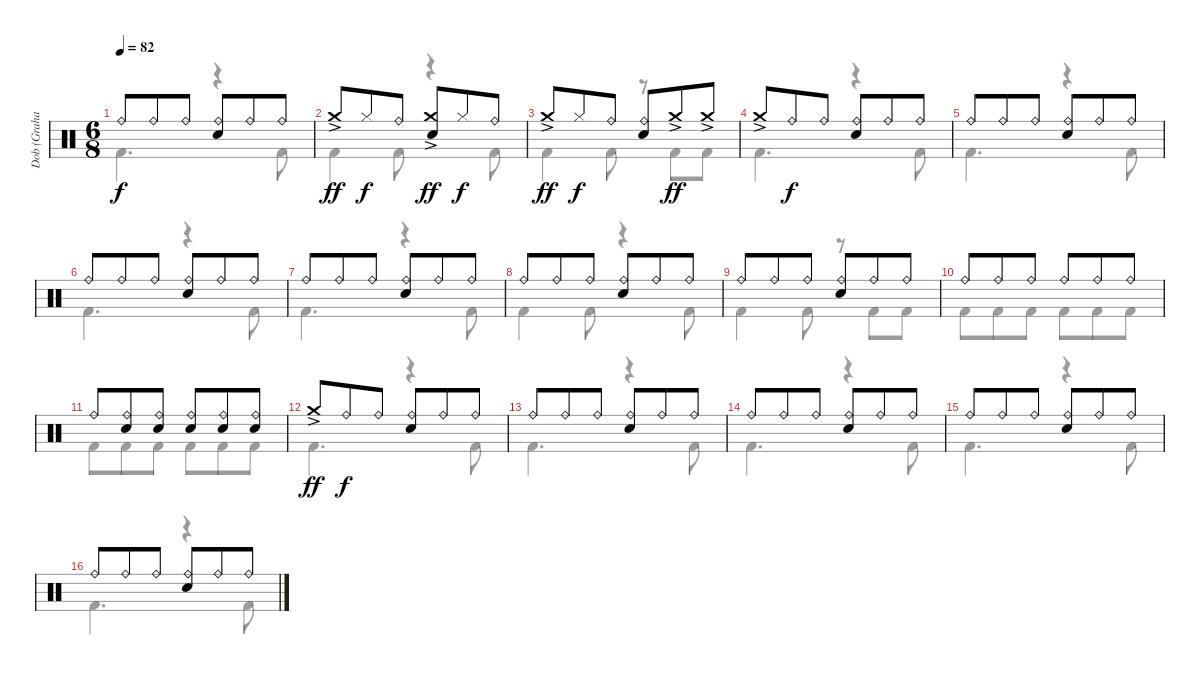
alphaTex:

\track ("Dob (Graham Walker)" "Dob (Graha") {instrument percussion}
\staff {score}
\articulation defaults
\voice
\ts (6 8)
\tempo 82
\clef neutral
\ks c "Ride (bell)".8{dy f} "Ride (bell)".8 "Ride (bell)".8
("Ride (bell)" "Electric Snare (hit)").8 "Ride (bell)".8 "Ride (bell)".8 |
"Crash medium (hit)"{ac}.8{dy ff} "Hi-Hat (closed)".8{dy f} "Ride (bell)".8 ("Crash medium (hit)"{ac} "Electric Snare (hit)").8{dy ff} "Hi-Hat (closed)".8{dy f} "Ride (bell)".8 |
"Crash medium (hit)"{ac}.8{dy ff} "Hi-Hat (closed)".8{dy f} "Ride (bell)".8 ("Ride (bell)" "Electric Snare (hit)").8 "Crash medium (hit)"{ac}.8{dy ff} "Crash medium (hit)"{ac}.8 |
"Crash medium (hit)"{ac}.8 "Ride (bell)".8{dy f} "Ride (bell)".8 ("Ride (bell)" "Electric Snare (hit)").8 "Ride (bell)".8 "Ride (bell)".8 |
"Ride (bell)".8 "Ride (bell)".8 "Ride (bell)".8 ("Ride (bell)" "Electric Snare (hit)").8 "Ride (bell)".8 "Ride (bell)".8 |
"Ride (bell)".8 "Ride (bell)".8 "Ride (bell)".8 ("Ride (bell)" "Electric Snare (hit)").8 "Ride (bell)".8 "Ride (bell)".8 |
"Ride (bell)".8 "Ride (bell)".8 "Ride (bell)".8 ("Ride (bell)" "Electric Snare (hit)").8 "Ride (bell)".8 "Ride (bell)".8 |
"Ride (bell)".8 "Ride (bell)".8 "Ride (bell)".8 ("Ride (bell)" "Electric Snare (hit)").8 "Ride (bell)".8 "Ride (bell)".8 |
"Ride (bell)".8 "Ride (bell)".8 "Ride (bell)".8 ("Ride (bell)" "Electric Snare (hit)").8 "Ride (bell)".8 "Ride (bell)".8 |
"Ride (bell)".8 "Ride (bell)".8 "Ride (bell)".8 "Ride (bell)".8 "Ride (bell)".8 "Ride (bell)".8 |
"Ride (bell)".8 ("Ride (bell)" "Electric Snare (hit)").8 ("Ride (bell)" "Electric Snare (hit)").8 ("Ride (bell)" "Electric Snare (hit)").8 ("Ride (bell)" "Electric Snare (hit)").8 ("Ride (bell)" "Electric Snare (hit)").8 |
"Crash medium (hit)"{ac}.8{dy ff} "Ride (bell)".8{dy f} "Ride (bell)".8 ("Ride (bell)" "Electric Snare (hit)").8 "Ride (bell)".8 "Ride (bell)".8 |
"Ride (bell)".8 "Ride (bell)".8 "Ride (bell)".8 ("Ride (bell)" "Electric Snare (hit)").8 "Ride (bell)".8 "Ride (bell)".8 |
"Ride (bell)".8 "Ride (bell)".8 "Ride (bell)".8 ("Ride (bell)" "Electric Snare (hit)").8 "Ride (bell)".8 "Ride (bell)".8 |
"Ride (bell)".8 "Ride (bell)".8 "Ride (bell)".8 ("Ride (bell)" "Electric Snare (hit)").8 "Ride (bell)".8 "Ride (bell)".8 |
"Ride (bell)".8 "Ride (bell)".8 "Ride (bell)".8 ("Ride (bell)" "Electric Snare (hit)").8 "Ride (bell)".8 "Ride (bell)".8
\voice
\clef neutral
\ottava regular
\simile none
\ks c "Kick (hit) 2".4{d dy f}
r.4 "Kick (hit) 2".8 |
"Kick (hit) 2".4 "Kick (hit) 2".8 r.4 "Kick (hit) 2".8 |
"Kick (hit) 2".4 "Kick (hit) 2".8 r.8 "Kick (hit) 2".8 "Kick (hit) 2".8 |
"Kick (hit) 2".4{d} r.4 "Kick (hit) 2".8 |
"Kick (hit) 2".4{d} r.4 "Kick (hit) 2".8 |
"Kick (hit) 2".4{d} r.4 "Kick (hit) 2".8 |
"Kick (hit) 2".4{d} r.4 "Kick (hit) 2".8 |
"Kick (hit) 2".4 "Kick (hit) 2".8 r.4 "Kick (hit) 2".8 |
"Kick (hit) 2".4 "Kick (hit) 2".8 r.8 "Kick (hit) 2".8 "Kick (hit) 2".8 |
"Kick (hit) 2".8 "Kick (hit) 2".8 "Kick (hit) 2".8 "Kick (hit) 2".8 "Kick (hit) 2".8 "Kick (hit) 2".8 |
"Kick (hit) 2".8 "Kick (hit) 2".8 "Kick (hit) 2".8 "Kick (hit) 2".8 "Kick (hit) 2".8 "Kick (hit) 2".8 |
"Kick (hit) 2".4{d} r.4 "Kick (hit) 2".8 |
"Kick (hit) 2".4{d} r.4 "Kick (hit) 2".8 |
"Kick (hit) 2".4{d} r.4 "Kick (hit) 2".8 |
"Kick (hit) 2".4{d} r.4 "Kick (hit) 2".8 |
"Kick (hit) 2".4{d} r.4 "Kick (hit) 2".8
